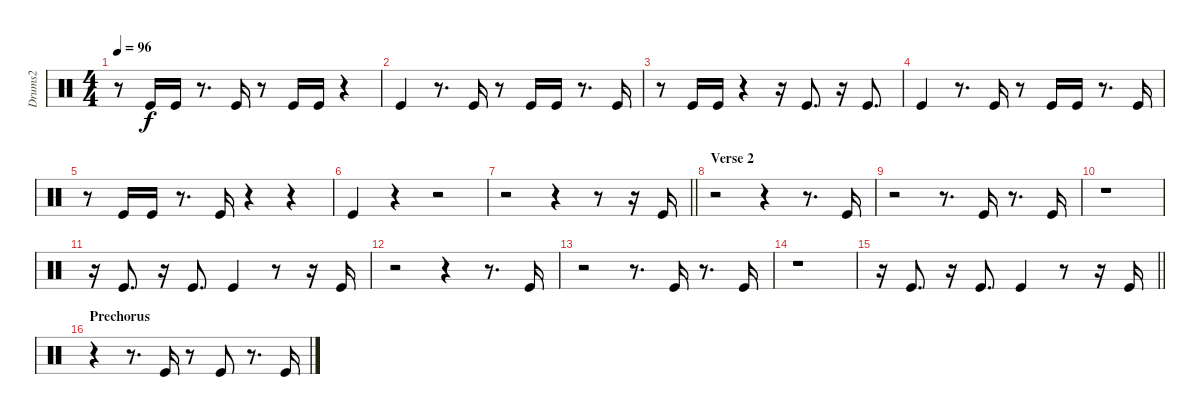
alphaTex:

\track ("Drums2" "Drums2") {instrument percussion}
\staff {score}
\articulation defaults
\ts (4 4)
\tempo 96
\clef neutral
\ks c
r.8{dy f} "Kick (hit)".16 "Kick (hit)".16 r.8{d} "Kick (hit)".16 r.8 "Kick (hit)".16 "Kick (hit)".16 r.4 |
"Kick (hit)".4 r.8{d} "Kick (hit)".16 r.8 "Kick (hit)".16 "Kick (hit)".16 r.8{d} "Kick (hit)".16 |
r.8 "Kick (hit)".16 "Kick (hit)".16 r.4 r.16 "Kick (hit)".8{d} r.16 "Kick (hit)".8{d} |
"Kick (hit)".4 r.8{d} "Kick (hit)".16 r.8 "Kick (hit)".16 "Kick (hit)".16 r.8{d} "Kick (hit)".16 |
r.8 "Kick (hit)".16 "Kick (hit)".16 r.8{d} "Kick (hit)".16 r.4 r.4 |
"Kick (hit)".4 r.4 r.2 |
\barLineRight lightlight
r.2 r.4 r.8 r.16 "Kick (hit)".16 |
\section ("" "Verse 2")
r.2 r.4 r.8{d} "Kick (hit)".16 |
r.2 r.8{d} "Kick (hit)".16 r.8{d} "Kick (hit)".16 |
r.1 |
r.16 "Kick (hit)".8{d} r.16 "Kick (hit)".8{d} "Kick (hit)".4 r.8 r.16 "Kick (hit)".16 |
r.2 r.4 r.8{d} "Kick (hit)".16 |
r.2 r.8{d} "Kick (hit)".16 r.8{d} "Kick (hit)".16 |
r.1 |
\barLineRight lightlight
r.16 "Kick (hit)".8{d} r.16 "Kick (hit)".8{d} "Kick (hit)".4 r.8 r.16 "Kick (hit)".16 |
\section ("" "Prechorus")
r.4 r.8{d} "Kick (hit)".16 r.8 "Kick (hit)".8 r.8{d} "Kick (hit)".16
